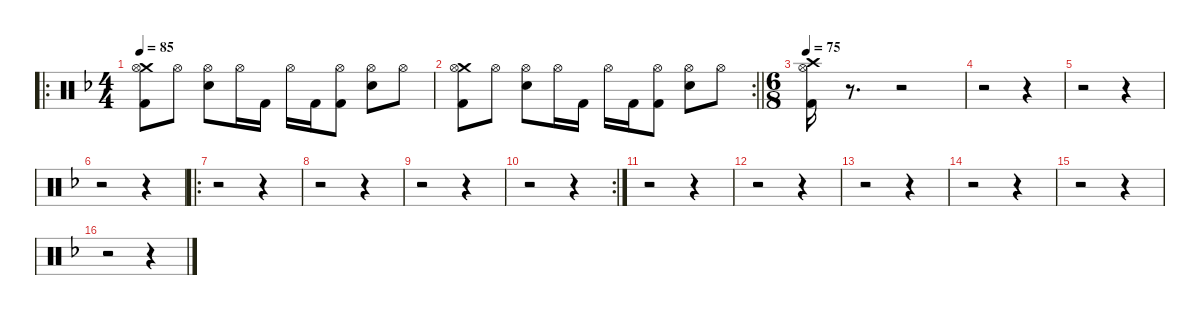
\defaultSystemsLayout 4
\hideDynamics
\bracketExtendMode nobrackets
\singleTrackTrackNamePolicy hidden
\multiTrackTrackNamePolicy hidden
\firstSystemTrackNameMode fullname
\firstSystemTrackNameOrientation horizontal
\otherSystemsTrackNameOrientation horizontal
\track ("Martin Lopez - Drums" "drm.") {instrument percussion}
\staff {score}
\articulation defaults
\ro
\ts (4 4)
\tempo 85
\clef neutral
\ks f
("Crash medium (hit)"{acc forcenatural} "Hi-Hat (open)"{acc forcenatural} "Kick (hit) 2"{acc forcenatural}).8{dy f beam Down} "Hi-Hat (open)"{acc forcenatural}.8{beam Down} ("Hi-Hat (open)"{acc forcenatural} "Snare (hit) 2"{acc forcenatural}).8{beam Down} "Hi-Hat (open)"{acc forcenatural}.16{beam Down} "Kick (hit) 2"{acc forcenatural}.16{beam Down} "Hi-Hat (open)"{acc forcenatural}.16{beam Down} "Kick (hit) 2"{acc forcenatural}.16{beam Down} ("Hi-Hat (open)"{acc forcenatural} "Kick (hit) 2"{acc forcenatural}).8{beam Down} ("Hi-Hat (open)"{acc forcenatural} "Snare (hit) 2"{acc forcenatural}).8{beam Down} "Hi-Hat (open)"{acc forcenatural}.8{beam Down} |
\rc 2
\barLineRight lightlight
("Crash medium (hit)"{acc forcenatural} "Hi-Hat (open)"{acc forcenatural} "Kick (hit) 2"{acc forcenatural}).8{beam Down} "Hi-Hat (open)"{acc forcenatural}.8{beam Down} ("Hi-Hat (open)"{acc forcenatural} "Snare (hit) 2"{acc forcenatural}).8{beam Down} "Hi-Hat (open)"{acc forcenatural}.16{beam Down} "Kick (hit) 2"{acc forcenatural}.16{beam Down} "Hi-Hat (open)"{acc forcenatural}.16{beam Down} "Kick (hit) 2"{acc forcenatural}.16{beam Down} ("Hi-Hat (open)"{acc forcenatural} "Kick (hit) 2"{acc forcenatural}).8{beam Down} ("Hi-Hat (open)"{acc forcenatural} "Snare (hit) 2"{acc forcenatural}).8{beam Down} "Hi-Hat (open)"{acc forcenatural}.8{beam Down} |
\ts (6 8)
\beaming (8 2 2 2 2)
\tempo 75
("Crash high (hit)"{acc forcenatural} "Hi-Hat (open)"{acc forcenatural} "Kick (hit) 2"{acc forcenatural}).16{beam Down} r.8{d beam Down} r.2{beam Down} |
r.2{beam Down} r.4{beam Down} |
r.2{beam Down} r.4{beam Down} |
r.2{beam Down} r.4{beam Down} |
\ro
r.2{beam Down} r.4{beam Down} |
r.2{beam Down} r.4{beam Down} |
r.2{beam Down} r.4{beam Down} |
\rc 2
r.2{beam Down} r.4{beam Down} |
r.2{beam Down} r.4{beam Down} |
r.2{beam Down} r.4{beam Down} |
r.2{beam Down} r.4{beam Down} |
r.2{beam Down} r.4{beam Down} |
r.2{beam Down} r.4{beam Down} |
r.2{beam Down} r.4{beam Down}
